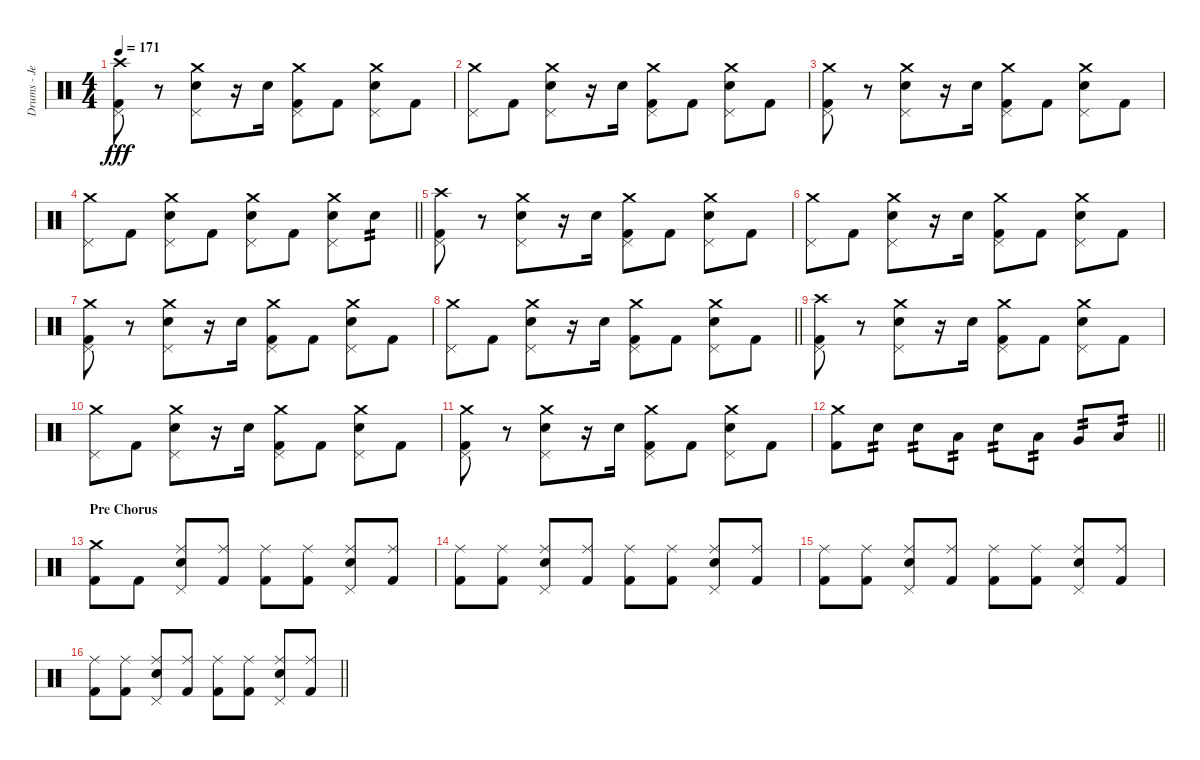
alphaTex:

\track ("Drums - Jerinx" "Drums - Je") {instrument percussion}
\staff {score}
\articulation defaults
\ts (4 4)
\tempo 171
\clef neutral
\ks c
("Pedal Hi-Hat (hit)" "Kick (hit) 2" "Crash high (hit)").8{dy fff} r.8 ("Pedal Hi-Hat (hit)" "Snare (hit) 2" "Crash medium (hit)").8 r.16 "Snare (hit) 2".16 ("Pedal Hi-Hat (hit)" "Kick (hit) 2" "Crash medium (hit)").8 "Kick (hit) 2".8 ("Pedal Hi-Hat (hit)" "Snare (hit) 2" "Crash medium (hit)").8 "Kick (hit) 2".8 |
("Pedal Hi-Hat (hit)" "Crash medium (hit)").8 "Kick (hit) 2".8 ("Pedal Hi-Hat (hit)" "Snare (hit) 2" "Crash medium (hit)").8 r.16 "Snare (hit) 2".16 ("Pedal Hi-Hat (hit)" "Kick (hit) 2" "Crash medium (hit)").8 "Kick (hit) 2".8 ("Pedal Hi-Hat (hit)" "Snare (hit) 2" "Crash medium (hit)").8 "Kick (hit) 2".8 |
("Pedal Hi-Hat (hit)" "Kick (hit) 2" "Crash medium (hit)").8 r.8 ("Pedal Hi-Hat (hit)" "Snare (hit) 2" "Crash medium (hit)").8 r.16 "Snare (hit) 2".16 ("Pedal Hi-Hat (hit)" "Kick (hit) 2" "Crash medium (hit)").8 "Kick (hit) 2".8 ("Pedal Hi-Hat (hit)" "Snare (hit) 2" "Crash medium (hit)").8 "Kick (hit) 2".8 |
\barLineRight lightlight
("Pedal Hi-Hat (hit)" "Crash medium (hit)").8 "Kick (hit) 2".8 ("Pedal Hi-Hat (hit)" "Snare (hit) 2" "Crash medium (hit)").8 "Kick (hit) 2".8 ("Pedal Hi-Hat (hit)" "Snare (hit) 2" "Crash medium (hit)").8 "Kick (hit) 2".8 ("Pedal Hi-Hat (hit)" "Snare (hit) 2" "Crash medium (hit)").8 "Snare (hit) 2".8{tp 2} |
("Pedal Hi-Hat (hit)" "Kick (hit) 2" "Crash high (hit)").8 r.8 ("Pedal Hi-Hat (hit)" "Snare (hit) 2" "Crash medium (hit)").8 r.16 "Snare (hit) 2".16 ("Pedal Hi-Hat (hit)" "Kick (hit) 2" "Crash medium (hit)").8 "Kick (hit) 2".8 ("Pedal Hi-Hat (hit)" "Snare (hit) 2" "Crash medium (hit)").8 "Kick (hit) 2".8 |
("Pedal Hi-Hat (hit)" "Crash medium (hit)").8 "Kick (hit) 2".8 ("Pedal Hi-Hat (hit)" "Snare (hit) 2" "Crash medium (hit)").8 r.16 "Snare (hit) 2".16 ("Pedal Hi-Hat (hit)" "Kick (hit) 2" "Crash medium (hit)").8 "Kick (hit) 2".8 ("Pedal Hi-Hat (hit)" "Snare (hit) 2" "Crash medium (hit)").8 "Kick (hit) 2".8 |
("Pedal Hi-Hat (hit)" "Kick (hit) 2" "Crash medium (hit)").8 r.8 ("Pedal Hi-Hat (hit)" "Snare (hit) 2" "Crash medium (hit)").8 r.16 "Snare (hit) 2".16 ("Pedal Hi-Hat (hit)" "Kick (hit) 2" "Crash medium (hit)").8 "Kick (hit) 2".8 ("Pedal Hi-Hat (hit)" "Snare (hit) 2" "Crash medium (hit)").8 "Kick (hit) 2".8 |
\barLineRight lightlight
("Pedal Hi-Hat (hit)" "Crash medium (hit)").8 "Kick (hit) 2".8 ("Pedal Hi-Hat (hit)" "Snare (hit) 2" "Crash medium (hit)").8 r.16 "Snare (hit) 2".16 ("Pedal Hi-Hat (hit)" "Kick (hit) 2" "Crash medium (hit)").8 "Kick (hit) 2".8 ("Pedal Hi-Hat (hit)" "Snare (hit) 2" "Crash medium (hit)").8 "Kick (hit) 2".8 |
("Pedal Hi-Hat (hit)" "Kick (hit) 2" "Crash high (hit)").8 r.8 ("Pedal Hi-Hat (hit)" "Snare (hit) 2" "Crash medium (hit)").8 r.16 "Snare (hit) 2".16 ("Pedal Hi-Hat (hit)" "Kick (hit) 2" "Crash medium (hit)").8 "Kick (hit) 2".8 ("Pedal Hi-Hat (hit)" "Snare (hit) 2" "Crash medium (hit)").8 "Kick (hit) 2".8 |
("Pedal Hi-Hat (hit)" "Crash medium (hit)").8 "Kick (hit) 2".8 ("Pedal Hi-Hat (hit)" "Snare (hit) 2" "Crash medium (hit)").8 r.16 "Snare (hit) 2".16 ("Pedal Hi-Hat (hit)" "Kick (hit) 2" "Crash medium (hit)").8 "Kick (hit) 2".8 ("Pedal Hi-Hat (hit)" "Snare (hit) 2" "Crash medium (hit)").8 "Kick (hit) 2".8 |
("Pedal Hi-Hat (hit)" "Kick (hit) 2" "Crash medium (hit)").8 r.8 ("Pedal Hi-Hat (hit)" "Snare (hit) 2" "Crash medium (hit)").8 r.16 "Snare (hit) 2".16 ("Pedal Hi-Hat (hit)" "Kick (hit) 2" "Crash medium (hit)").8 "Kick (hit) 2".8 ("Pedal Hi-Hat (hit)" "Snare (hit) 2" "Crash medium (hit)").8 "Kick (hit) 2".8 |
\barLineRight lightlight
("Kick (hit) 2" "Crash medium (hit)").8 "Snare (hit) 2".8{tp 2} "Snare (hit) 2".8{tp 2} "Low Tom (hit)".8{tp 2} "Snare (hit) 2".8{tp 2} "Low Tom (hit)".8{tp 2} "Very Low Tom (hit)".8{tp 2} "Low Floor Tom (hit)".8{tp 2} |
\section ("" "Pre Chorus")
("Kick (hit) 2" "Crash medium (hit)").8 "Kick (hit) 2".8 ("Pedal Hi-Hat (hit)" "Snare (hit) 2" "Ride (middle)").8 ("Kick (hit) 2" "Ride (middle)").8 ("Kick (hit) 2" "Ride (middle)").8 ("Kick (hit) 2" "Ride (middle)").8 ("Pedal Hi-Hat (hit)" "Snare (hit) 2" "Ride (middle)").8 ("Kick (hit) 2" "Ride (middle)").8 |
("Kick (hit) 2" "Ride (middle)").8 ("Kick (hit) 2" "Ride (middle)").8 ("Pedal Hi-Hat (hit)" "Snare (hit) 2" "Ride (middle)").8 ("Kick (hit) 2" "Ride (middle)").8 ("Kick (hit) 2" "Ride (middle)").8 ("Kick (hit) 2" "Ride (middle)").8 ("Pedal Hi-Hat (hit)" "Snare (hit) 2" "Ride (middle)").8 ("Kick (hit) 2" "Ride (middle)").8 |
("Kick (hit) 2" "Ride (middle)").8 ("Kick (hit) 2" "Ride (middle)").8 ("Pedal Hi-Hat (hit)" "Snare (hit) 2" "Ride (middle)").8 ("Kick (hit) 2" "Ride (middle)").8 ("Kick (hit) 2" "Ride (middle)").8 ("Kick (hit) 2" "Ride (middle)").8 ("Pedal Hi-Hat (hit)" "Snare (hit) 2" "Ride (middle)").8 ("Kick (hit) 2" "Ride (middle)").8 |
\barLineRight lightlight
("Kick (hit) 2" "Ride (middle)").8 ("Kick (hit) 2" "Ride (middle)").8 ("Pedal Hi-Hat (hit)" "Snare (hit) 2" "Ride (middle)").8 ("Kick (hit) 2" "Ride (middle)").8 ("Kick (hit) 2" "Ride (middle)").8 ("Kick (hit) 2" "Ride (middle)").8 ("Pedal Hi-Hat (hit)" "Snare (hit) 2" "Ride (middle)").8 ("Kick (hit) 2" "Ride (middle)").8
